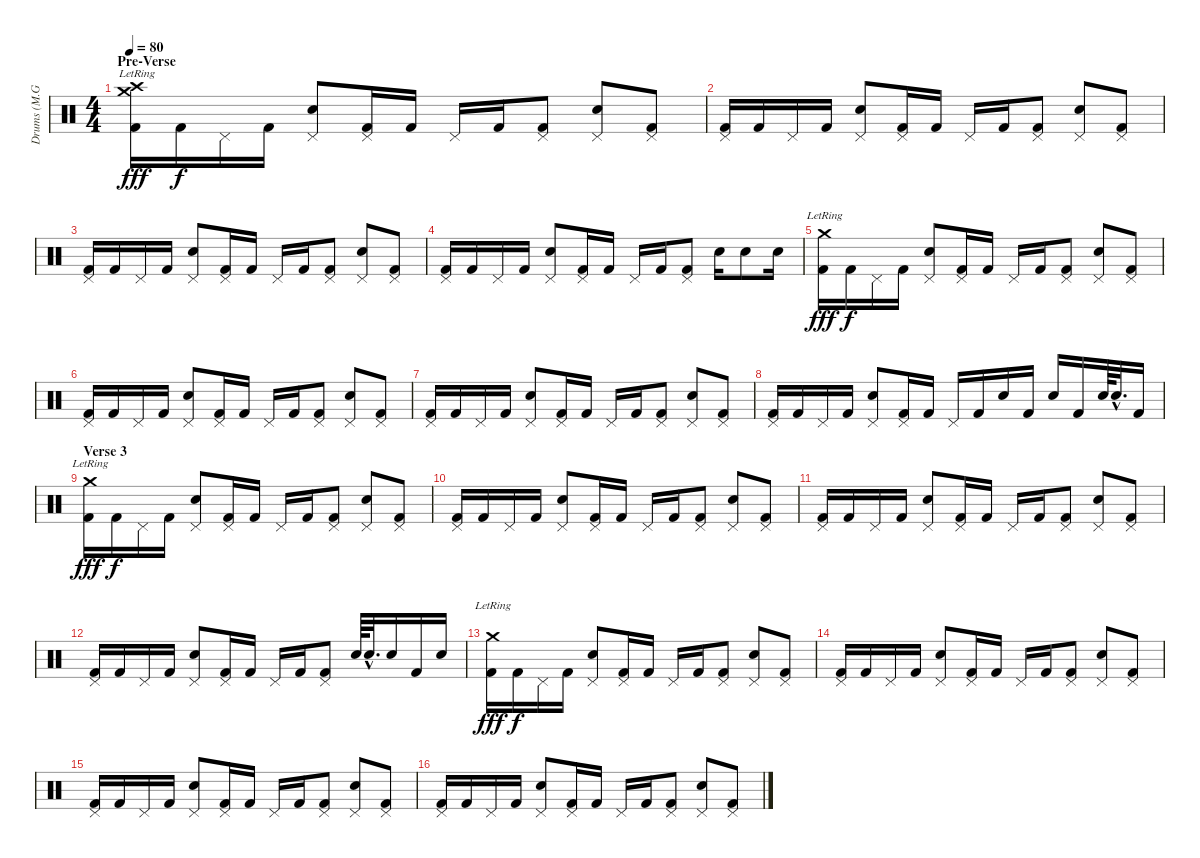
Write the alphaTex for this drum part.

\track ("Drums (M.Grosskopf)" "Drums (M.G") {instrument percussion}
\staff {score}
\articulation defaults
\ts (4 4)
\section ("" "Pre-Verse")
\tempo 80
\clef neutral
\ks c
("Crash high (hit)"{lr} "Crash medium (hit)"{lr} "Kick (hit) 2").16{dy fff} "Kick (hit) 2".16{dy f} "Pedal Hi-Hat (hit)".16 "Kick (hit) 2".16 ("Pedal Hi-Hat (hit)" "Electric Snare (hit)").8 ("Pedal Hi-Hat (hit)" "Kick (hit) 2").16 "Kick (hit) 2".16 "Pedal Hi-Hat (hit)".16 "Kick (hit) 2".16 ("Pedal Hi-Hat (hit)" "Kick (hit) 2").8 ("Pedal Hi-Hat (hit)" "Electric Snare (hit)").8 ("Pedal Hi-Hat (hit)" "Kick (hit) 2").8 |
("Pedal Hi-Hat (hit)" "Kick (hit) 2").16 "Kick (hit) 2".16 "Pedal Hi-Hat (hit)".16 "Kick (hit) 2".16 ("Pedal Hi-Hat (hit)" "Electric Snare (hit)").8 ("Pedal Hi-Hat (hit)" "Kick (hit) 2").16 "Kick (hit) 2".16 "Pedal Hi-Hat (hit)".16 "Kick (hit) 2".16 ("Pedal Hi-Hat (hit)" "Kick (hit) 2").8 ("Pedal Hi-Hat (hit)" "Electric Snare (hit)").8 ("Pedal Hi-Hat (hit)" "Kick (hit) 2").8 |
("Pedal Hi-Hat (hit)" "Kick (hit) 2").16 "Kick (hit) 2".16 "Pedal Hi-Hat (hit)".16 "Kick (hit) 2".16 ("Pedal Hi-Hat (hit)" "Electric Snare (hit)").8 ("Pedal Hi-Hat (hit)" "Kick (hit) 2").16 "Kick (hit) 2".16 "Pedal Hi-Hat (hit)".16 "Kick (hit) 2".16 ("Pedal Hi-Hat (hit)" "Kick (hit) 2").8 ("Pedal Hi-Hat (hit)" "Electric Snare (hit)").8 ("Pedal Hi-Hat (hit)" "Kick (hit) 2").8 |
("Pedal Hi-Hat (hit)" "Kick (hit) 2").16 "Kick (hit) 2".16 "Pedal Hi-Hat (hit)".16 "Kick (hit) 2".16 ("Pedal Hi-Hat (hit)" "Electric Snare (hit)").8 ("Pedal Hi-Hat (hit)" "Kick (hit) 2").16 "Kick (hit) 2".16 "Pedal Hi-Hat (hit)".16 "Kick (hit) 2".16 ("Pedal Hi-Hat (hit)" "Kick (hit) 2").8 "Electric Snare (hit)".16 "Electric Snare (hit)".8 "Electric Snare (hit)".16 |
("Crash medium (hit)"{lr} "Kick (hit) 2").16{dy fff} "Kick (hit) 2".16{dy f} "Pedal Hi-Hat (hit)".16 "Kick (hit) 2".16 ("Pedal Hi-Hat (hit)" "Electric Snare (hit)").8 ("Pedal Hi-Hat (hit)" "Kick (hit) 2").16 "Kick (hit) 2".16 "Pedal Hi-Hat (hit)".16 "Kick (hit) 2".16 ("Pedal Hi-Hat (hit)" "Kick (hit) 2").8 ("Pedal Hi-Hat (hit)" "Electric Snare (hit)").8 ("Pedal Hi-Hat (hit)" "Kick (hit) 2").8 |
("Pedal Hi-Hat (hit)" "Kick (hit) 2").16 "Kick (hit) 2".16 "Pedal Hi-Hat (hit)".16 "Kick (hit) 2".16 ("Pedal Hi-Hat (hit)" "Electric Snare (hit)").8 ("Pedal Hi-Hat (hit)" "Kick (hit) 2").16 "Kick (hit) 2".16 "Pedal Hi-Hat (hit)".16 "Kick (hit) 2".16 ("Pedal Hi-Hat (hit)" "Kick (hit) 2").8 ("Pedal Hi-Hat (hit)" "Electric Snare (hit)").8 ("Pedal Hi-Hat (hit)" "Kick (hit) 2").8 |
("Pedal Hi-Hat (hit)" "Kick (hit) 2").16 "Kick (hit) 2".16 "Pedal Hi-Hat (hit)".16 "Kick (hit) 2".16 ("Pedal Hi-Hat (hit)" "Electric Snare (hit)").8 ("Pedal Hi-Hat (hit)" "Kick (hit) 2").16 "Kick (hit) 2".16 "Pedal Hi-Hat (hit)".16 "Kick (hit) 2".16 ("Pedal Hi-Hat (hit)" "Kick (hit) 2").8 ("Pedal Hi-Hat (hit)" "Electric Snare (hit)").8 ("Pedal Hi-Hat (hit)" "Kick (hit) 2").8 |
("Pedal Hi-Hat (hit)" "Kick (hit) 2").16 "Kick (hit) 2".16 "Pedal Hi-Hat (hit)".16 "Kick (hit) 2".16 ("Pedal Hi-Hat (hit)" "Electric Snare (hit)").8 ("Pedal Hi-Hat (hit)" "Kick (hit) 2").16 "Kick (hit) 2".16 "Pedal Hi-Hat (hit)".16 "Kick (hit) 2".16 "Electric Snare (hit)".16 "Kick (hit) 2".16 "Electric Snare (hit)".16 "Kick (hit) 2".16 "Electric Snare (hit)".64 "Electric Snare (hit)"{hac}.32{d} "Kick (hit) 2".16 |
\section ("" "Verse 3")
("Crash medium (hit)"{lr} "Kick (hit) 2").16{dy fff} "Kick (hit) 2".16{dy f} "Pedal Hi-Hat (hit)".16 "Kick (hit) 2".16 ("Pedal Hi-Hat (hit)" "Electric Snare (hit)").8 ("Pedal Hi-Hat (hit)" "Kick (hit) 2").16 "Kick (hit) 2".16 "Pedal Hi-Hat (hit)".16 "Kick (hit) 2".16 ("Pedal Hi-Hat (hit)" "Kick (hit) 2").8 ("Pedal Hi-Hat (hit)" "Electric Snare (hit)").8 ("Pedal Hi-Hat (hit)" "Kick (hit) 2").8 |
("Pedal Hi-Hat (hit)" "Kick (hit) 2").16 "Kick (hit) 2".16 "Pedal Hi-Hat (hit)".16 "Kick (hit) 2".16 ("Pedal Hi-Hat (hit)" "Electric Snare (hit)").8 ("Pedal Hi-Hat (hit)" "Kick (hit) 2").16 "Kick (hit) 2".16 "Pedal Hi-Hat (hit)".16 "Kick (hit) 2".16 ("Pedal Hi-Hat (hit)" "Kick (hit) 2").8 ("Pedal Hi-Hat (hit)" "Electric Snare (hit)").8 ("Pedal Hi-Hat (hit)" "Kick (hit) 2").8 |
("Pedal Hi-Hat (hit)" "Kick (hit) 2").16 "Kick (hit) 2".16 "Pedal Hi-Hat (hit)".16 "Kick (hit) 2".16 ("Pedal Hi-Hat (hit)" "Electric Snare (hit)").8 ("Pedal Hi-Hat (hit)" "Kick (hit) 2").16 "Kick (hit) 2".16 "Pedal Hi-Hat (hit)".16 "Kick (hit) 2".16 ("Pedal Hi-Hat (hit)" "Kick (hit) 2").8 ("Pedal Hi-Hat (hit)" "Electric Snare (hit)").8 ("Pedal Hi-Hat (hit)" "Kick (hit) 2").8 |
("Pedal Hi-Hat (hit)" "Kick (hit) 2").16 "Kick (hit) 2".16 "Pedal Hi-Hat (hit)".16 "Kick (hit) 2".16 ("Pedal Hi-Hat (hit)" "Electric Snare (hit)").8 ("Pedal Hi-Hat (hit)" "Kick (hit) 2").16 "Kick (hit) 2".16 "Pedal Hi-Hat (hit)".16 "Kick (hit) 2".16 ("Pedal Hi-Hat (hit)" "Kick (hit) 2").8 "Electric Snare (hit)".64 "Electric Snare (hit)"{hac}.32{d} "Electric Snare (hit)".16 "Kick (hit) 2".16 "Electric Snare (hit)".16 |
("Crash medium (hit)"{lr} "Kick (hit) 2").16{dy fff} "Kick (hit) 2".16{dy f} "Pedal Hi-Hat (hit)".16 "Kick (hit) 2".16 ("Pedal Hi-Hat (hit)" "Electric Snare (hit)").8 ("Pedal Hi-Hat (hit)" "Kick (hit) 2").16 "Kick (hit) 2".16 "Pedal Hi-Hat (hit)".16 "Kick (hit) 2".16 ("Pedal Hi-Hat (hit)" "Kick (hit) 2").8 ("Pedal Hi-Hat (hit)" "Electric Snare (hit)").8 ("Pedal Hi-Hat (hit)" "Kick (hit) 2").8 |
("Pedal Hi-Hat (hit)" "Kick (hit) 2").16 "Kick (hit) 2".16 "Pedal Hi-Hat (hit)".16 "Kick (hit) 2".16 ("Pedal Hi-Hat (hit)" "Electric Snare (hit)").8 ("Pedal Hi-Hat (hit)" "Kick (hit) 2").16 "Kick (hit) 2".16 "Pedal Hi-Hat (hit)".16 "Kick (hit) 2".16 ("Pedal Hi-Hat (hit)" "Kick (hit) 2").8 ("Pedal Hi-Hat (hit)" "Electric Snare (hit)").8 ("Pedal Hi-Hat (hit)" "Kick (hit) 2").8 |
("Pedal Hi-Hat (hit)" "Kick (hit) 2").16 "Kick (hit) 2".16 "Pedal Hi-Hat (hit)".16 "Kick (hit) 2".16 ("Pedal Hi-Hat (hit)" "Electric Snare (hit)").8 ("Pedal Hi-Hat (hit)" "Kick (hit) 2").16 "Kick (hit) 2".16 "Pedal Hi-Hat (hit)".16 "Kick (hit) 2".16 ("Pedal Hi-Hat (hit)" "Kick (hit) 2").8 ("Pedal Hi-Hat (hit)" "Electric Snare (hit)").8 ("Pedal Hi-Hat (hit)" "Kick (hit) 2").8 |
("Pedal Hi-Hat (hit)" "Kick (hit) 2").16 "Kick (hit) 2".16 "Pedal Hi-Hat (hit)".16 "Kick (hit) 2".16 ("Pedal Hi-Hat (hit)" "Electric Snare (hit)").8 ("Pedal Hi-Hat (hit)" "Kick (hit) 2").16 "Kick (hit) 2".16 "Pedal Hi-Hat (hit)".16 "Kick (hit) 2".16 ("Pedal Hi-Hat (hit)" "Kick (hit) 2").8 ("Pedal Hi-Hat (hit)" "Electric Snare (hit)").8 ("Pedal Hi-Hat (hit)" "Kick (hit) 2").8
